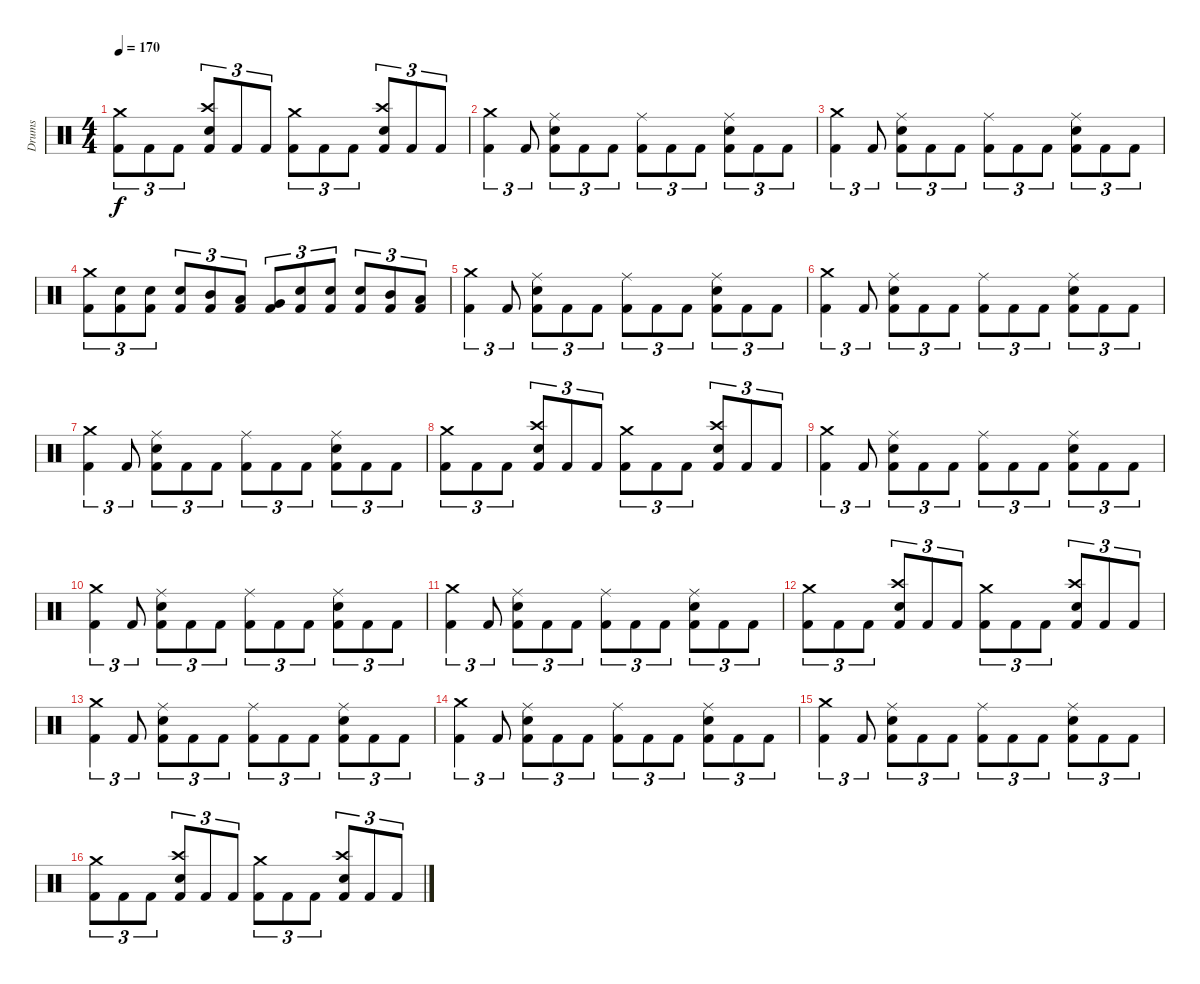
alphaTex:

\track ("Drums" "Drums") {instrument percussion}
\staff {score}
\articulation defaults
\ts (4 4)
\tempo 170
\clef neutral
\ks c
("Crash medium (hit)" "Kick (hit) 2").8{tu (3 2) dy f} "Kick (hit) 2".8{tu (3 2)} "Kick (hit) 2".8{tu (3 2)} ("Crash high (hit)" "Snare (hit) 2" "Kick (hit) 2").8{tu (3 2)} "Kick (hit) 2".8{tu (3 2)} "Kick (hit) 2".8{tu (3 2)} ("Crash medium (hit)" "Kick (hit) 2").8{tu (3 2)} "Kick (hit) 2".8{tu (3 2)} "Kick (hit) 2".8{tu (3 2)} ("Crash high (hit)" "Snare (hit) 2" "Kick (hit) 2").8{tu (3 2)} "Kick (hit) 2".8{tu (3 2)} "Kick (hit) 2".8{tu (3 2)} |
("Crash medium (hit)" "Kick (hit) 2").4{tu (3 2)} "Kick (hit) 2".8{tu (3 2)} ("Ride (middle)" "Snare (hit) 2" "Kick (hit) 2").8{tu (3 2)} "Kick (hit) 2".8{tu (3 2)} "Kick (hit) 2".8{tu (3 2)} ("Ride (middle)" "Kick (hit) 2").8{tu (3 2)} "Kick (hit) 2".8{tu (3 2)} "Kick (hit) 2".8{tu (3 2)} ("Ride (middle)" "Snare (hit) 2" "Kick (hit) 2").8{tu (3 2)} "Kick (hit) 2".8{tu (3 2)} "Kick (hit) 2".8{tu (3 2)} |
("Crash medium (hit)" "Kick (hit) 2").4{tu (3 2)} "Kick (hit) 2".8{tu (3 2)} ("Ride (middle)" "Snare (hit) 2" "Kick (hit) 2").8{tu (3 2)} "Kick (hit) 2".8{tu (3 2)} "Kick (hit) 2".8{tu (3 2)} ("Ride (middle)" "Kick (hit) 2").8{tu (3 2)} "Kick (hit) 2".8{tu (3 2)} "Kick (hit) 2".8{tu (3 2)} ("Ride (middle)" "Snare (hit) 2" "Kick (hit) 2").8{tu (3 2)} "Kick (hit) 2".8{tu (3 2)} "Kick (hit) 2".8{tu (3 2)} |
("Crash medium (hit)" "Kick (hit) 2").8{tu (3 2)} ("Kick (hit) 2" "Snare (hit) 2").8{tu (3 2)} ("Kick (hit) 2" "Snare (hit) 2").8{tu (3 2)} ("Kick (hit) 2" "Snare (hit) 2").8{tu (3 2)} ("Mid Tom (hit)" "Kick (hit) 2").8{tu (3 2)} ("Low Tom (hit)" "Kick (hit) 2").8{tu (3 2)} ("Very Low Tom (hit)" "Kick (hit) 2").8{tu (3 2)} ("Snare (hit) 2" "Kick (hit) 2").8{tu (3 2)} ("Snare (hit) 2" "Kick (hit) 2").8{tu (3 2)} ("Snare (hit) 2" "Kick (hit) 2").8{tu (3 2)} ("Mid Tom (hit)" "Kick (hit) 2").8{tu (3 2)} ("Low Tom (hit)" "Kick (hit) 2").8{tu (3 2)} |
("Crash medium (hit)" "Kick (hit) 2").4{tu (3 2)} "Kick (hit) 2".8{tu (3 2)} ("Ride (middle)" "Snare (hit) 2" "Kick (hit) 2").8{tu (3 2)} "Kick (hit) 2".8{tu (3 2)} "Kick (hit) 2".8{tu (3 2)} ("Ride (middle)" "Kick (hit) 2").8{tu (3 2)} "Kick (hit) 2".8{tu (3 2)} "Kick (hit) 2".8{tu (3 2)} ("Ride (middle)" "Snare (hit) 2" "Kick (hit) 2").8{tu (3 2)} "Kick (hit) 2".8{tu (3 2)} "Kick (hit) 2".8{tu (3 2)} |
("Crash medium (hit)" "Kick (hit) 2").4{tu (3 2)} "Kick (hit) 2".8{tu (3 2)} ("Ride (middle)" "Snare (hit) 2" "Kick (hit) 2").8{tu (3 2)} "Kick (hit) 2".8{tu (3 2)} "Kick (hit) 2".8{tu (3 2)} ("Ride (middle)" "Kick (hit) 2").8{tu (3 2)} "Kick (hit) 2".8{tu (3 2)} "Kick (hit) 2".8{tu (3 2)} ("Ride (middle)" "Snare (hit) 2" "Kick (hit) 2").8{tu (3 2)} "Kick (hit) 2".8{tu (3 2)} "Kick (hit) 2".8{tu (3 2)} |
("Crash medium (hit)" "Kick (hit) 2").4{tu (3 2)} "Kick (hit) 2".8{tu (3 2)} ("Ride (middle)" "Snare (hit) 2" "Kick (hit) 2").8{tu (3 2)} "Kick (hit) 2".8{tu (3 2)} "Kick (hit) 2".8{tu (3 2)} ("Ride (middle)" "Kick (hit) 2").8{tu (3 2)} "Kick (hit) 2".8{tu (3 2)} "Kick (hit) 2".8{tu (3 2)} ("Ride (middle)" "Snare (hit) 2" "Kick (hit) 2").8{tu (3 2)} "Kick (hit) 2".8{tu (3 2)} "Kick (hit) 2".8{tu (3 2)} |
("Crash medium (hit)" "Kick (hit) 2").8{tu (3 2)} "Kick (hit) 2".8{tu (3 2)} "Kick (hit) 2".8{tu (3 2)} ("Crash high (hit)" "Snare (hit) 2" "Kick (hit) 2").8{tu (3 2)} "Kick (hit) 2".8{tu (3 2)} "Kick (hit) 2".8{tu (3 2)} ("Crash medium (hit)" "Kick (hit) 2").8{tu (3 2)} "Kick (hit) 2".8{tu (3 2)} "Kick (hit) 2".8{tu (3 2)} ("Crash high (hit)" "Snare (hit) 2" "Kick (hit) 2").8{tu (3 2)} "Kick (hit) 2".8{tu (3 2)} "Kick (hit) 2".8{tu (3 2)} |
("Crash medium (hit)" "Kick (hit) 2").4{tu (3 2)} "Kick (hit) 2".8{tu (3 2)} ("Ride (middle)" "Snare (hit) 2" "Kick (hit) 2").8{tu (3 2)} "Kick (hit) 2".8{tu (3 2)} "Kick (hit) 2".8{tu (3 2)} ("Ride (middle)" "Kick (hit) 2").8{tu (3 2)} "Kick (hit) 2".8{tu (3 2)} "Kick (hit) 2".8{tu (3 2)} ("Ride (middle)" "Snare (hit) 2" "Kick (hit) 2").8{tu (3 2)} "Kick (hit) 2".8{tu (3 2)} "Kick (hit) 2".8{tu (3 2)} |
("Crash medium (hit)" "Kick (hit) 2").4{tu (3 2)} "Kick (hit) 2".8{tu (3 2)} ("Ride (middle)" "Snare (hit) 2" "Kick (hit) 2").8{tu (3 2)} "Kick (hit) 2".8{tu (3 2)} "Kick (hit) 2".8{tu (3 2)} ("Ride (middle)" "Kick (hit) 2").8{tu (3 2)} "Kick (hit) 2".8{tu (3 2)} "Kick (hit) 2".8{tu (3 2)} ("Ride (middle)" "Snare (hit) 2" "Kick (hit) 2").8{tu (3 2)} "Kick (hit) 2".8{tu (3 2)} "Kick (hit) 2".8{tu (3 2)} |
("Crash medium (hit)" "Kick (hit) 2").4{tu (3 2)} "Kick (hit) 2".8{tu (3 2)} ("Ride (middle)" "Snare (hit) 2" "Kick (hit) 2").8{tu (3 2)} "Kick (hit) 2".8{tu (3 2)} "Kick (hit) 2".8{tu (3 2)} ("Ride (middle)" "Kick (hit) 2").8{tu (3 2)} "Kick (hit) 2".8{tu (3 2)} "Kick (hit) 2".8{tu (3 2)} ("Ride (middle)" "Snare (hit) 2" "Kick (hit) 2").8{tu (3 2)} "Kick (hit) 2".8{tu (3 2)} "Kick (hit) 2".8{tu (3 2)} |
("Crash medium (hit)" "Kick (hit) 2").8{tu (3 2)} "Kick (hit) 2".8{tu (3 2)} "Kick (hit) 2".8{tu (3 2)} ("Crash high (hit)" "Snare (hit) 2" "Kick (hit) 2").8{tu (3 2)} "Kick (hit) 2".8{tu (3 2)} "Kick (hit) 2".8{tu (3 2)} ("Crash medium (hit)" "Kick (hit) 2").8{tu (3 2)} "Kick (hit) 2".8{tu (3 2)} "Kick (hit) 2".8{tu (3 2)} ("Crash high (hit)" "Snare (hit) 2" "Kick (hit) 2").8{tu (3 2)} "Kick (hit) 2".8{tu (3 2)} "Kick (hit) 2".8{tu (3 2)} |
("Crash medium (hit)" "Kick (hit) 2").4{tu (3 2)} "Kick (hit) 2".8{tu (3 2)} ("Ride (middle)" "Snare (hit) 2" "Kick (hit) 2").8{tu (3 2)} "Kick (hit) 2".8{tu (3 2)} "Kick (hit) 2".8{tu (3 2)} ("Ride (middle)" "Kick (hit) 2").8{tu (3 2)} "Kick (hit) 2".8{tu (3 2)} "Kick (hit) 2".8{tu (3 2)} ("Ride (middle)" "Snare (hit) 2" "Kick (hit) 2").8{tu (3 2)} "Kick (hit) 2".8{tu (3 2)} "Kick (hit) 2".8{tu (3 2)} |
("Crash medium (hit)" "Kick (hit) 2").4{tu (3 2)} "Kick (hit) 2".8{tu (3 2)} ("Ride (middle)" "Snare (hit) 2" "Kick (hit) 2").8{tu (3 2)} "Kick (hit) 2".8{tu (3 2)} "Kick (hit) 2".8{tu (3 2)} ("Ride (middle)" "Kick (hit) 2").8{tu (3 2)} "Kick (hit) 2".8{tu (3 2)} "Kick (hit) 2".8{tu (3 2)} ("Ride (middle)" "Snare (hit) 2" "Kick (hit) 2").8{tu (3 2)} "Kick (hit) 2".8{tu (3 2)} "Kick (hit) 2".8{tu (3 2)} |
("Crash medium (hit)" "Kick (hit) 2").4{tu (3 2)} "Kick (hit) 2".8{tu (3 2)} ("Ride (middle)" "Snare (hit) 2" "Kick (hit) 2").8{tu (3 2)} "Kick (hit) 2".8{tu (3 2)} "Kick (hit) 2".8{tu (3 2)} ("Ride (middle)" "Kick (hit) 2").8{tu (3 2)} "Kick (hit) 2".8{tu (3 2)} "Kick (hit) 2".8{tu (3 2)} ("Ride (middle)" "Snare (hit) 2" "Kick (hit) 2").8{tu (3 2)} "Kick (hit) 2".8{tu (3 2)} "Kick (hit) 2".8{tu (3 2)} |
("Crash medium (hit)" "Kick (hit) 2").8{tu (3 2)} "Kick (hit) 2".8{tu (3 2)} "Kick (hit) 2".8{tu (3 2)} ("Crash high (hit)" "Snare (hit) 2" "Kick (hit) 2").8{tu (3 2)} "Kick (hit) 2".8{tu (3 2)} "Kick (hit) 2".8{tu (3 2)} ("Crash medium (hit)" "Kick (hit) 2").8{tu (3 2)} "Kick (hit) 2".8{tu (3 2)} "Kick (hit) 2".8{tu (3 2)} ("Crash high (hit)" "Snare (hit) 2" "Kick (hit) 2").8{tu (3 2)} "Kick (hit) 2".8{tu (3 2)} "Kick (hit) 2".8{tu (3 2)}
